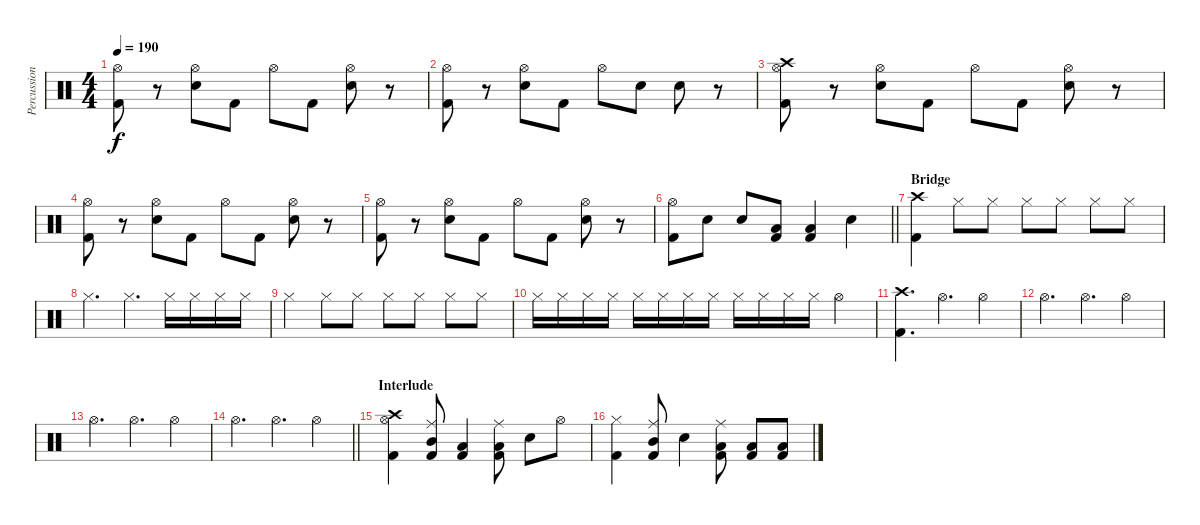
\track ("Percussion" "Percussion") {instrument percussion}
\staff {score}
\articulation defaults
\ts (4 4)
\tempo 190
\clef neutral
\ks c
("Hi-Hat (open)" "Kick (hit) 2").8{dy f} r.8 ("Hi-Hat (open)" "Snare (hit) 2").8 "Kick (hit) 2".8 "Hi-Hat (open)".8 "Kick (hit) 2".8 ("Hi-Hat (open)" "Snare (hit) 2").8 r.8 |
("Hi-Hat (open)" "Kick (hit) 2").8 r.8 ("Hi-Hat (open)" "Snare (hit) 2").8 "Kick (hit) 2".8 "Hi-Hat (open)".8 "Snare (hit) 2".8 "Snare (hit) 2".8 r.8 |
("Hi-Hat (open)" "Crash high (hit)" "Kick (hit) 2").8 r.8 ("Hi-Hat (open)" "Snare (hit) 2").8 "Kick (hit) 2".8 "Hi-Hat (open)".8 "Kick (hit) 2".8 ("Hi-Hat (open)" "Snare (hit) 2").8 r.8 |
("Hi-Hat (open)" "Kick (hit) 2").8 r.8 ("Hi-Hat (open)" "Snare (hit) 2").8 "Kick (hit) 2".8 "Hi-Hat (open)".8 "Kick (hit) 2".8 ("Hi-Hat (open)" "Snare (hit) 2").8 r.8 |
("Hi-Hat (open)" "Kick (hit) 2").8 r.8 ("Hi-Hat (open)" "Snare (hit) 2").8 "Kick (hit) 2".8 "Hi-Hat (open)".8 "Kick (hit) 2".8 ("Hi-Hat (open)" "Snare (hit) 2").8 r.8 |
\barLineRight lightlight
("Kick (hit) 2" "Hi-Hat (open)").8 "Snare (hit) 2".8 "Snare (hit) 2".8 ("Low Tom (hit)" "Kick (hit) 2").8 ("Kick (hit) 2" "Low Tom (hit)").4 "Snare (hit) 2".4 |
\section ("" "Bridge")
("Crash high (hit)" "Kick (hit) 2").4 "Hi-Hat (closed)".8 "Hi-Hat (closed)".8 "Hi-Hat (closed)".8 "Hi-Hat (closed)".8 "Hi-Hat (closed)".8 "Hi-Hat (closed)".8 |
"Hi-Hat (closed)".4{d} "Hi-Hat (closed)".4{d} "Hi-Hat (closed)".16 "Hi-Hat (closed)".16 "Hi-Hat (closed)".16 "Hi-Hat (closed)".16 |
"Hi-Hat (closed)".4 "Hi-Hat (closed)".8 "Hi-Hat (closed)".8 "Hi-Hat (closed)".8 "Hi-Hat (closed)".8 "Hi-Hat (closed)".8 "Hi-Hat (closed)".8 |
"Hi-Hat (closed)".16 "Hi-Hat (closed)".16 "Hi-Hat (closed)".16 "Hi-Hat (closed)".16 "Hi-Hat (closed)".16 "Hi-Hat (closed)".16 "Hi-Hat (closed)".16 "Hi-Hat (closed)".16 "Hi-Hat (closed)".16 "Hi-Hat (closed)".16 "Hi-Hat (closed)".16 "Hi-Hat (closed)".16 "Hi-Hat (open)".4 |
("Crash high (hit)" "Kick (hit) 2").4{d} "Hi-Hat (open)".4{d} "Hi-Hat (open)".4 |
"Hi-Hat (open)".4{d} "Hi-Hat (open)".4{d} "Hi-Hat (open)".4 |
"Hi-Hat (open)".4{d} "Hi-Hat (open)".4{d} "Hi-Hat (open)".4 |
\barLineRight lightlight "Hi-Hat (open)".4{d} "Hi-Hat (open)".4{d} "Hi-Hat (open)".4
|
\section ("" "Interlude")
("Kick (hit) 2" "Crash high (hit)" "Hi-Hat (open)").4 ("Ride (middle)" "Kick (hit) 2" "Mid Tom (hit)").8 ("Low Tom (hit)" "Kick (hit) 2").4 ("Ride (middle)" "Kick (hit) 2" "Low Tom (hit)").8 "Snare (hit) 2".8 "Hi-Hat (open)".8 |
("Kick (hit) 2" "Hi-Hat (closed)").4 ("Ride (middle)" "Kick (hit) 2" "Mid Tom (hit)").8 "Snare (hit) 2".4 ("Ride (middle)" "Kick (hit) 2" "Low Tom (hit)").8 ("Low Tom (hit)" "Kick (hit) 2").8 ("Low Tom (hit)" "Kick (hit) 2").8
